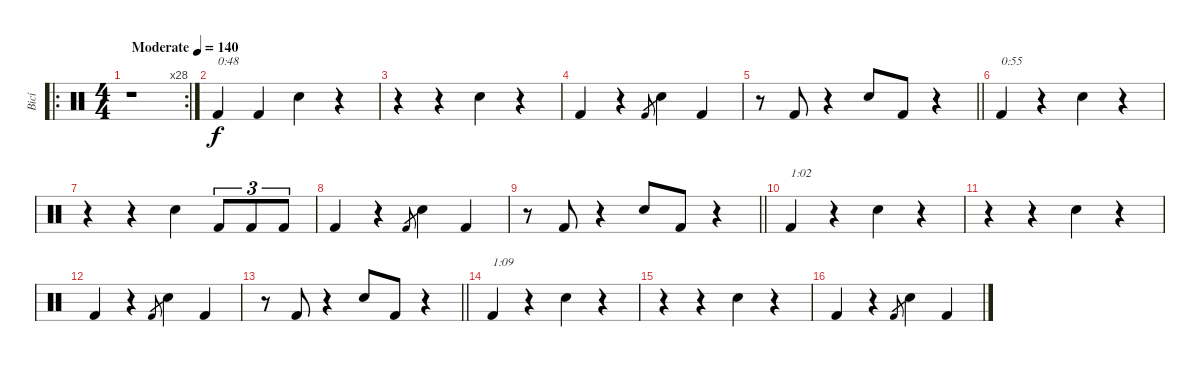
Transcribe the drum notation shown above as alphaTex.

\track ("Bicí" "Bicí") {instrument percussion}
\staff {score}
\articulation defaults
\ro
\rc 28
\ts (4 4)
\tempo (140 "Moderate")
\clef neutral
\ks c
r.1{dy f} |
"Kick (hit) 2".4{txt "0:48"} "Kick (hit) 2".4 "Snare (hit) 2".4 r.4 |
r.4 r.4 "Snare (hit) 2".4 r.4 |
"Kick (hit) 2".4 r.4 "Kick (hit) 2".8{gr} "Snare (hit) 2".4 "Kick (hit) 2".4 |
\barLineRight lightlight
r.8 "Kick (hit) 2".8 r.4 "Snare (hit) 2".8 "Kick (hit) 2".8 r.4 |
"Kick (hit) 2".4{txt "0:55"} r.4 "Snare (hit) 2".4 r.4 |
r.4 r.4 "Snare (hit) 2".4 "Kick (hit) 2".8{tu (3 2)} "Kick (hit) 2".8{tu (3 2)} "Kick (hit) 2".8{tu (3 2)} |
"Kick (hit) 2".4 r.4 "Kick (hit) 2".8{gr} "Snare (hit) 2".4 "Kick (hit) 2".4 |
\barLineRight lightlight
r.8 "Kick (hit) 2".8 r.4 "Snare (hit) 2".8 "Kick (hit) 2".8 r.4 |
"Kick (hit) 2".4{txt "1:02"} r.4 "Snare (hit) 2".4 r.4 |
r.4 r.4 "Snare (hit) 2".4 r.4 |
"Kick (hit) 2".4 r.4 "Kick (hit) 2".8{gr} "Snare (hit) 2".4 "Kick (hit) 2".4 |
\barLineRight lightlight
r.8 "Kick (hit) 2".8 r.4 "Snare (hit) 2".8 "Kick (hit) 2".8 r.4 |
"Kick (hit) 2".4{txt "1:09"} r.4 "Snare (hit) 2".4 r.4 |
r.4 r.4 "Snare (hit) 2".4 r.4 |
"Kick (hit) 2".4 r.4 "Kick (hit) 2".8{gr} "Snare (hit) 2".4 "Kick (hit) 2".4
